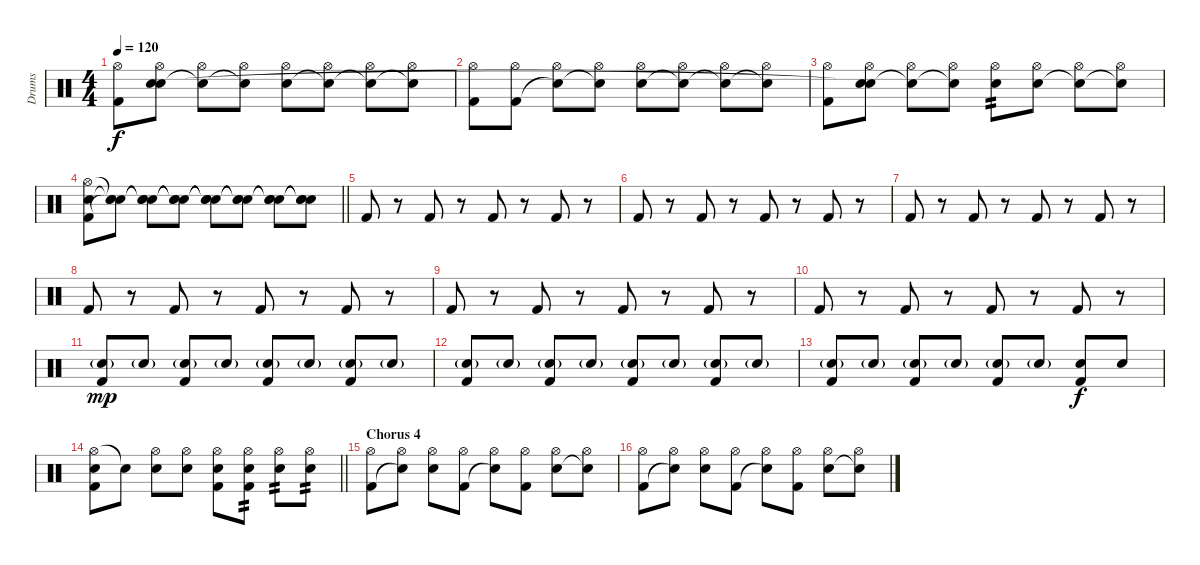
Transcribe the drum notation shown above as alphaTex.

\track ("Drums" "Drums") {instrument percussion}
\staff {score}
\articulation defaults
\ts (4 4)
\tempo 120
\clef neutral
\ks c
("Hi-Hat (open)" "Kick (hit) 2").8{dy f} ("Hi-Hat (open)" "Electric Snare (hit)" "Snare (hit)"{t}).8 ("Hi-Hat (open)" "Snare (hit)"{t}).8 ("Hi-Hat (open)" "Snare (hit)"{t}).8 ("Hi-Hat (open)" "Electric Snare (hit)").8 ("Hi-Hat (open)" "Snare (hit)"{t}).8 ("Hi-Hat (open)" "Snare (hit)"{t}).8 ("Hi-Hat (open)" "Snare (hit)"{t}).8 |
("Hi-Hat (open)" "Kick (hit) 2").8 ("Hi-Hat (open)" "Kick (hit) 2").8 ("Hi-Hat (open)" "Snare (hit)"{t}).8 ("Hi-Hat (open)" "Snare (hit)"{t}).8 ("Hi-Hat (open)" "Electric Snare (hit)").8 ("Hi-Hat (open)" "Snare (hit)"{t}).8 ("Hi-Hat (open)" "Snare (hit)"{t}).8 ("Hi-Hat (open)" "Snare (hit)"{t}).8 |
("Hi-Hat (open)" "Kick (hit) 2").8 ("Hi-Hat (open)" "Electric Snare (hit)" "Snare (hit)"{t}).8 ("Hi-Hat (open)" "Snare (hit)"{t}).8 ("Hi-Hat (open)" "Snare (hit)"{t}).8 ("Hi-Hat (open)" "Electric Snare (hit)").8{tp 2} ("Hi-Hat (open)" "Electric Snare (hit)").8 ("Hi-Hat (open)" "Snare (hit)"{t}).8 ("Hi-Hat (open)" "Snare (hit)"{t}).8 |
\barLineRight lightlight
("Hi-Hat (open)" "Electric Snare (hit)" "Kick (hit) 2").8 ("Snare (hit)"{t} "Snare (hit)"{t} "Snare (hit)"{t}).8 ("Snare (hit)"{t} "Snare (hit)"{t} "Snare (hit)"{t}).8 ("Snare (hit)"{t} "Snare (hit)"{t} "Snare (hit)"{t}).8 ("Snare (hit)"{t} "Snare (hit)"{t} "Snare (hit)"{t}).8 ("Snare (hit)"{t} "Snare (hit)"{t} "Snare (hit)"{t}).8 ("Snare (hit)"{t} "Snare (hit)"{t} "Snare (hit)"{t}).8 ("Snare (hit)"{t} "Snare (hit)"{t} "Snare (hit)"{t}).8 |
"Kick (hit) 2".8 r.8 "Kick (hit) 2".8 r.8 "Kick (hit) 2".8 r.8 "Kick (hit) 2".8 r.8 |
"Kick (hit) 2".8 r.8 "Kick (hit) 2".8 r.8 "Kick (hit) 2".8 r.8 "Kick (hit) 2".8 r.8 |
"Kick (hit) 2".8 r.8 "Kick (hit) 2".8 r.8 "Kick (hit) 2".8 r.8 "Kick (hit) 2".8 r.8 |
"Kick (hit) 2".8 r.8 "Kick (hit) 2".8 r.8 "Kick (hit) 2".8 r.8 "Kick (hit) 2".8 r.8 |
"Kick (hit) 2".8 r.8 "Kick (hit) 2".8 r.8 "Kick (hit) 2".8 r.8 "Kick (hit) 2".8 r.8 |
"Kick (hit) 2".8 r.8 "Kick (hit) 2".8 r.8 "Kick (hit) 2".8 r.8 "Kick (hit) 2".8 r.8 |
("Electric Snare (hit)"{g} "Kick (hit) 2").8{dy mp} "Electric Snare (hit)"{g}.8 ("Electric Snare (hit)"{g} "Kick (hit) 2").8 "Electric Snare (hit)"{g}.8 ("Electric Snare (hit)"{g} "Kick (hit) 2").8 "Electric Snare (hit)"{g}.8 ("Electric Snare (hit)"{g} "Kick (hit) 2").8 "Electric Snare (hit)"{g}.8 |
("Electric Snare (hit)"{g} "Kick (hit) 2").8 "Electric Snare (hit)"{g}.8 ("Electric Snare (hit)"{g} "Kick (hit) 2").8 "Electric Snare (hit)"{g}.8 ("Electric Snare (hit)"{g} "Kick (hit) 2").8 "Electric Snare (hit)"{g}.8 ("Electric Snare (hit)"{g} "Kick (hit) 2").8 "Electric Snare (hit)"{g}.8 |
("Electric Snare (hit)"{g} "Kick (hit) 2").8 "Electric Snare (hit)"{g}.8 ("Electric Snare (hit)"{g} "Kick (hit) 2").8 "Electric Snare (hit)"{g}.8 ("Electric Snare (hit)"{g} "Kick (hit) 2").8 "Electric Snare (hit)"{g}.8 ("Electric Snare (hit)" "Kick (hit) 2").8{dy f} "Electric Snare (hit)".8 |
\barLineRight lightlight
("Hi-Hat (open)" "Electric Snare (hit)" "Kick (hit) 2").8 "Snare (hit)"{t}.8 ("Hi-Hat (open)" "Electric Snare (hit)").8 ("Hi-Hat (open)" "Electric Snare (hit)").8 ("Hi-Hat (open)" "Electric Snare (hit)" "Kick (hit) 2").8 ("Hi-Hat (open)" "Electric Snare (hit)" "Kick (hit) 2").8{tp 2} ("Hi-Hat (open)" "Electric Snare (hit)").8{tp 2} ("Hi-Hat (open)" "Electric Snare (hit)").8{tp 2} |
\section ("" "Chorus 4")
("Hi-Hat (open)" "Kick (hit) 2").8 ("Hi-Hat (open)" "Snare (hit)"{t}).8 ("Hi-Hat (open)" "Electric Snare (hit)").8 ("Hi-Hat (open)" "Kick (hit) 2").8 ("Hi-Hat (open)" "Snare (hit)"{t}).8 ("Hi-Hat (open)" "Kick (hit) 2").8 ("Hi-Hat (open)" "Electric Snare (hit)").8 ("Hi-Hat (open)" "Snare (hit)"{t}).8 |
("Hi-Hat (open)" "Kick (hit) 2").8 ("Hi-Hat (open)" "Snare (hit)"{t}).8 ("Hi-Hat (open)" "Electric Snare (hit)").8 ("Hi-Hat (open)" "Kick (hit) 2").8 ("Hi-Hat (open)" "Snare (hit)"{t}).8 ("Hi-Hat (open)" "Kick (hit) 2").8 ("Hi-Hat (open)" "Electric Snare (hit)").8 ("Hi-Hat (open)" "Snare (hit)"{t}).8
